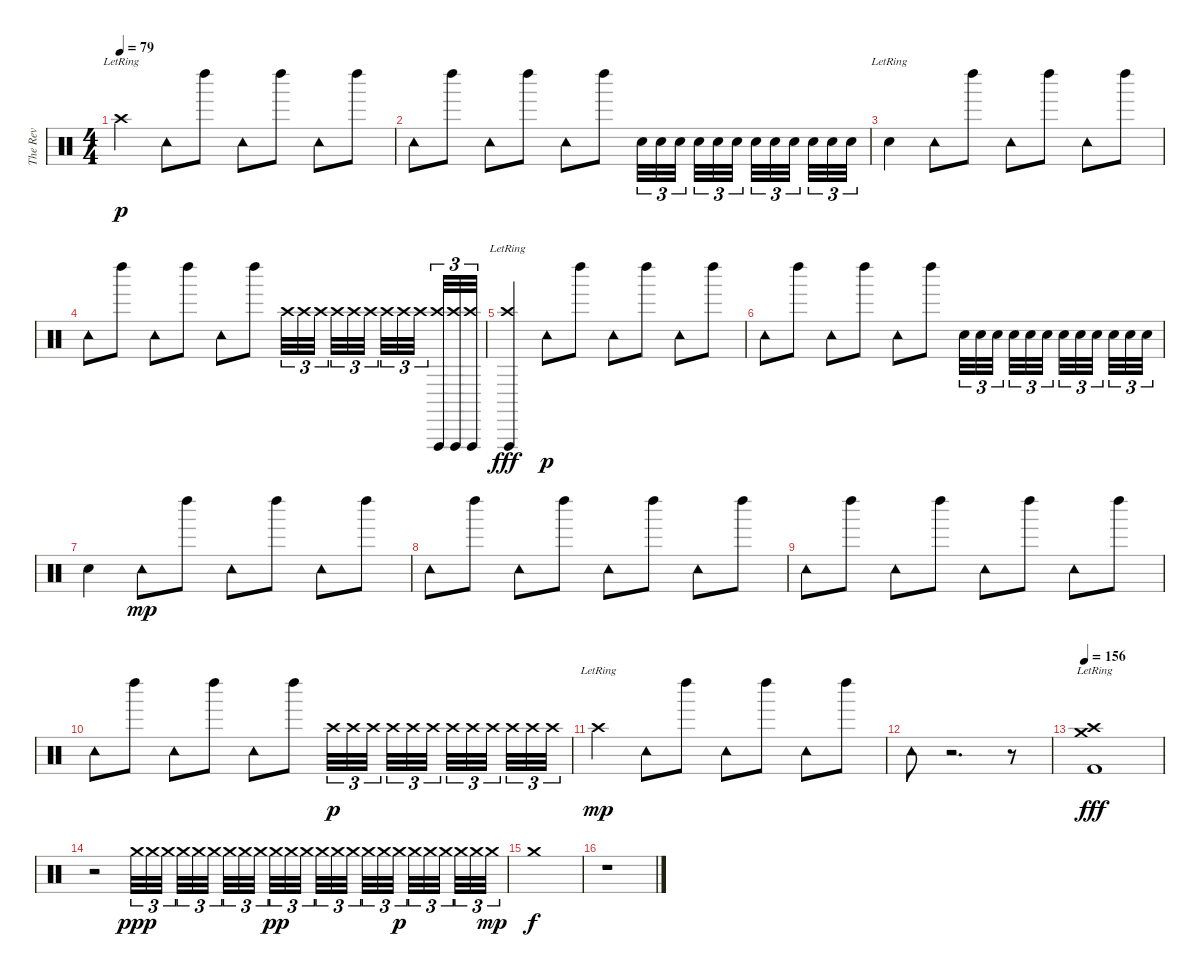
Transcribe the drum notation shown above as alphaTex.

\track ("The Rev" "The Rev") {instrument percussion}
\staff {score}
\articulation defaults
\ts (4 4)
\tempo 79
\clef neutral
\ks c "Crash high (hit)"{lr}.4{dy p} "Tambourine (hit)".8 "Left Maraca (hit)".8 "Tambourine (hit)".8 "Left Maraca (hit)".8 "Tambourine (hit)".8 "Left Maraca (hit)".8
|
"Tambourine (hit)".8 "Left Maraca (hit)".8 "Tambourine (hit)".8 "Left Maraca (hit)".8 "Tambourine (hit)".8 "Left Maraca (hit)".8 "Electric Snare (hit)".32{tu (3 2)} "Electric Snare (hit)".32{tu (3 2)} "Electric Snare (hit)".32{tu (3 2)} "Electric Snare (hit)".32{tu (3 2)} "Electric Snare (hit)".32{tu (3 2)} "Electric Snare (hit)".32{tu (3 2)} "Electric Snare (hit)".32{tu (3 2)} "Electric Snare (hit)".32{tu (3 2)} "Electric Snare (hit)".32{tu (3 2)} "Electric Snare (hit)".32{tu (3 2)} "Electric Snare (hit)".32{tu (3 2)} "Electric Snare (hit)".32{tu (3 2)} |
"Electric Snare (hit)"{lr}.4 "Tambourine (hit)".8 "Left Maraca (hit)".8 "Tambourine (hit)".8 "Left Maraca (hit)".8 "Tambourine (hit)".8 "Left Maraca (hit)".8 |
"Tambourine (hit)".8 "Left Maraca (hit)".8 "Tambourine (hit)".8 "Left Maraca (hit)".8 "Tambourine (hit)".8 "Left Maraca (hit)".8 "Crash high (hit)".32{tu (3 2)} "Crash high (hit)".32{tu (3 2)} "Crash high (hit)".32{tu (3 2)} "Crash high (hit)".32{tu (3 2)} "Crash high (hit)".32{tu (3 2)} "Crash high (hit)".32{tu (3 2)} "Crash high (hit)".32{tu (3 2)} "Crash high (hit)".32{tu (3 2)} "Crash high (hit)".32{tu (3 2)} ("Crash high (hit)" "Vibraslap (hit)").32{tu (3 2)} ("Crash high (hit)" "Vibraslap (hit)").32{tu (3 2)} ("Crash high (hit)" "Vibraslap (hit)").32{tu (3 2)} |
("Crash high (hit)"{lr} "Vibraslap (hit)").4{dy fff} "Tambourine (hit)".8{dy p} "Left Maraca (hit)".8 "Tambourine (hit)".8 "Left Maraca (hit)".8 "Tambourine (hit)".8 "Left Maraca (hit)".8 |
"Tambourine (hit)".8 "Left Maraca (hit)".8 "Tambourine (hit)".8 "Left Maraca (hit)".8 "Tambourine (hit)".8 "Left Maraca (hit)".8 "Electric Snare (hit)".32{tu (3 2)} "Electric Snare (hit)".32{tu (3 2)} "Electric Snare (hit)".32{tu (3 2)} "Electric Snare (hit)".32{tu (3 2)} "Electric Snare (hit)".32{tu (3 2)} "Electric Snare (hit)".32{tu (3 2)} "Electric Snare (hit)".32{tu (3 2)} "Electric Snare (hit)".32{tu (3 2)} "Electric Snare (hit)".32{tu (3 2)} "Electric Snare (hit)".32{tu (3 2)} "Electric Snare (hit)".32{tu (3 2)} "Electric Snare (hit)".32{tu (3 2)} |
"Electric Snare (hit)".4 "Tambourine (hit)".8{dy mp} "Left Maraca (hit)".8 "Tambourine (hit)".8 "Left Maraca (hit)".8 "Tambourine (hit)".8 "Left Maraca (hit)".8 |
"Tambourine (hit)".8 "Left Maraca (hit)".8 "Tambourine (hit)".8 "Left Maraca (hit)".8 "Tambourine (hit)".8 "Left Maraca (hit)".8 "Tambourine (hit)".8 "Left Maraca (hit)".8 |
"Tambourine (hit)".8 "Left Maraca (hit)".8 "Tambourine (hit)".8 "Left Maraca (hit)".8 "Tambourine (hit)".8 "Left Maraca (hit)".8 "Tambourine (hit)".8 "Left Maraca (hit)".8 |
"Tambourine (hit)".8 "Left Maraca (hit)".8 "Tambourine (hit)".8 "Left Maraca (hit)".8 "Tambourine (hit)".8 "Left Maraca (hit)".8 "Crash high (hit)".32{tu (3 2) dy p} "Crash high (hit)".32{tu (3 2)} "Crash high (hit)".32{tu (3 2)} "Crash high (hit)".32{tu (3 2)} "Crash high (hit)".32{tu (3 2)} "Crash high (hit)".32{tu (3 2)} "Crash high (hit)".32{tu (3 2)} "Crash high (hit)".32{tu (3 2)} "Crash high (hit)".32{tu (3 2)} "Crash high (hit)".32{tu (3 2)} "Crash high (hit)".32{tu (3 2)} "Crash high (hit)".32{tu (3 2)} |
"Crash high (hit)"{lr}.4{dy mp} "Tambourine (hit)".8 "Left Maraca (hit)".8 "Tambourine (hit)".8 "Left Maraca (hit)".8 "Tambourine (hit)".8 "Left Maraca (hit)".8 |
"Tambourine (hit)".8 r.2{d} r.8 |
\tempo 156
("Kick (hit) 2" "Crash high (hit)"{lr} "Crash medium (hit)"{lr}).1{dy fff} |
r.2 "Crash medium (hit)".32{tu (3 2) dy ppp} "Crash medium (hit)".32{tu (3 2)} "Crash medium (hit)".32{tu (3 2)} "Crash medium (hit)".32{tu (3 2)} "Crash medium (hit)".32{tu (3 2)} "Crash medium (hit)".32{tu (3 2)} "Crash medium (hit)".32{tu (3 2)} "Crash medium (hit)".32{tu (3 2)} "Crash medium (hit)".32{tu (3 2)} "Crash medium (hit)".32{tu (3 2) dy pp} "Crash medium (hit)".32{tu (3 2)} "Crash medium (hit)".32{tu (3 2)} "Crash medium (hit)".32{tu (3 2)} "Crash medium (hit)".32{tu (3 2)} "Crash medium (hit)".32{tu (3 2)} "Crash medium (hit)".32{tu (3 2)} "Crash medium (hit)".32{tu (3 2)} "Crash medium (hit)".32{tu (3 2) dy p} "Crash medium (hit)".32{tu (3 2)} "Crash medium (hit)".32{tu (3 2)} "Crash medium (hit)".32{tu (3 2)} "Crash medium (hit)".32{tu (3 2)} "Crash medium (hit)".32{tu (3 2)} "Crash medium (hit)".32{tu (3 2) dy mp} |
"Crash medium (hit)".1{dy f} |
r.1
